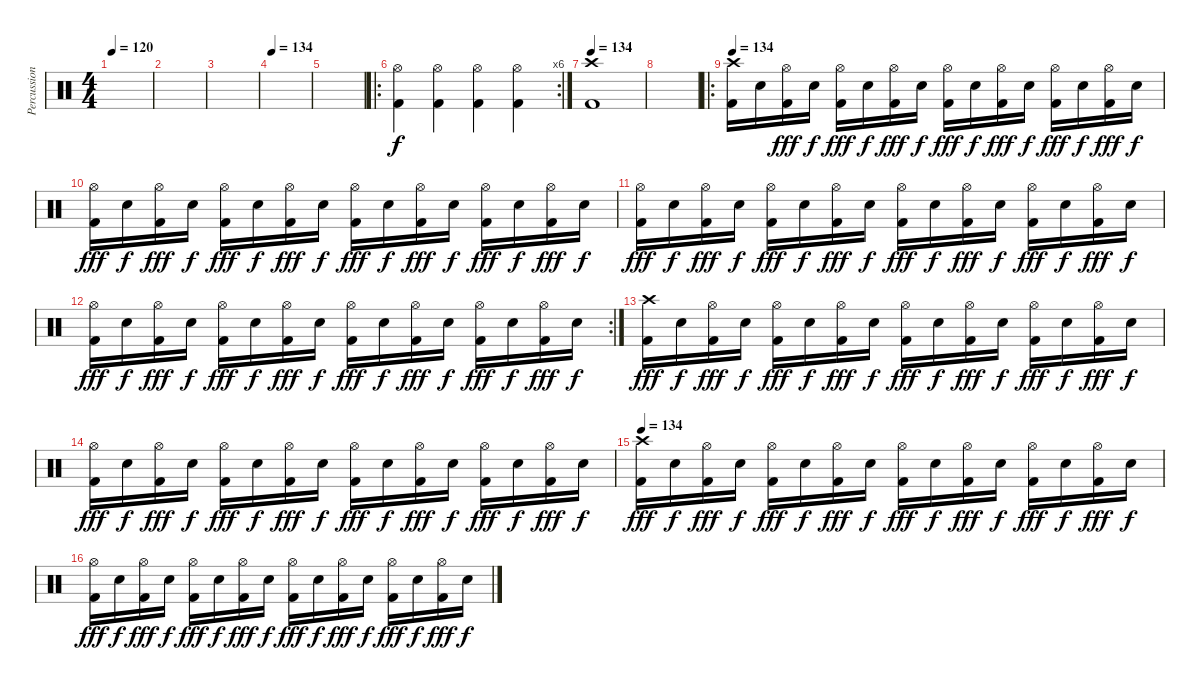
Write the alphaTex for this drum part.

\track ("Percussion" "Percussion") {instrument percussion}
\staff {score}
\articulation defaults
\ts (4 4)
\tempo 120
\tempo 115
\tempo 120
\clef neutral
\ks c
|
|
|
\tempo 134
|
|
\ro
\rc 6
("Hi-Hat (open)" "Kick (hit) 2").4 ("Hi-Hat (open)" "Kick (hit) 2").4 ("Hi-Hat (open)" "Kick (hit) 2").4 ("Hi-Hat (open)" "Kick (hit) 2").4 |
\tempo 134
("Crash high (hit)" "Kick (hit) 2").1 |
|
\ro
\tempo 134
("Crash high (hit)" "Kick (hit) 2").16 "Electric Snare (hit)".16{dy f} ("Hi-Hat (open)" "Kick (hit) 2").16{dy fff} "Electric Snare (hit)".16{dy f} ("Hi-Hat (open)" "Kick (hit) 2").16{dy fff} "Electric Snare (hit)".16{dy f} ("Hi-Hat (open)" "Kick (hit) 2").16{dy fff} "Electric Snare (hit)".16{dy f} ("Hi-Hat (open)" "Kick (hit) 2").16{dy fff} "Electric Snare (hit)".16{dy f} ("Hi-Hat (open)" "Kick (hit) 2").16{dy fff} "Electric Snare (hit)".16{dy f} ("Hi-Hat (open)" "Kick (hit) 2").16{dy fff} "Electric Snare (hit)".16{dy f} ("Hi-Hat (open)" "Kick (hit) 2").16{dy fff} "Electric Snare (hit)".16{dy f} |
("Hi-Hat (open)" "Kick (hit) 2").16{dy fff} "Electric Snare (hit)".16{dy f} ("Hi-Hat (open)" "Kick (hit) 2").16{dy fff} "Electric Snare (hit)".16{dy f} ("Hi-Hat (open)" "Kick (hit) 2").16{dy fff} "Electric Snare (hit)".16{dy f} ("Hi-Hat (open)" "Kick (hit) 2").16{dy fff} "Electric Snare (hit)".16{dy f} ("Hi-Hat (open)" "Kick (hit) 2").16{dy fff} "Electric Snare (hit)".16{dy f} ("Hi-Hat (open)" "Kick (hit) 2").16{dy fff} "Electric Snare (hit)".16{dy f} ("Hi-Hat (open)" "Kick (hit) 2").16{dy fff} "Electric Snare (hit)".16{dy f} ("Hi-Hat (open)" "Kick (hit) 2").16{dy fff} "Electric Snare (hit)".16{dy f} |
("Hi-Hat (open)" "Kick (hit) 2").16{dy fff} "Electric Snare (hit)".16{dy f} ("Hi-Hat (open)" "Kick (hit) 2").16{dy fff} "Electric Snare (hit)".16{dy f} ("Hi-Hat (open)" "Kick (hit) 2").16{dy fff} "Electric Snare (hit)".16{dy f} ("Hi-Hat (open)" "Kick (hit) 2").16{dy fff} "Electric Snare (hit)".16{dy f} ("Hi-Hat (open)" "Kick (hit) 2").16{dy fff} "Electric Snare (hit)".16{dy f} ("Hi-Hat (open)" "Kick (hit) 2").16{dy fff} "Electric Snare (hit)".16{dy f} ("Hi-Hat (open)" "Kick (hit) 2").16{dy fff} "Electric Snare (hit)".16{dy f} ("Hi-Hat (open)" "Kick (hit) 2").16{dy fff} "Electric Snare (hit)".16{dy f} |
\rc 2
("Hi-Hat (open)" "Kick (hit) 2").16{dy fff} "Electric Snare (hit)".16{dy f} ("Hi-Hat (open)" "Kick (hit) 2").16{dy fff} "Electric Snare (hit)".16{dy f} ("Hi-Hat (open)" "Kick (hit) 2").16{dy fff} "Electric Snare (hit)".16{dy f} ("Hi-Hat (open)" "Kick (hit) 2").16{dy fff} "Electric Snare (hit)".16{dy f} ("Hi-Hat (open)" "Kick (hit) 2").16{dy fff} "Electric Snare (hit)".16{dy f} ("Hi-Hat (open)" "Kick (hit) 2").16{dy fff} "Electric Snare (hit)".16{dy f} ("Hi-Hat (open)" "Kick (hit) 2").16{dy fff} "Electric Snare (hit)".16{dy f} ("Hi-Hat (open)" "Kick (hit) 2").16{dy fff} "Electric Snare (hit)".16{dy f} |
("Crash high (hit)" "Kick (hit) 2").16{dy fff} "Electric Snare (hit)".16{dy f} ("Hi-Hat (open)" "Kick (hit) 2").16{dy fff} "Electric Snare (hit)".16{dy f} ("Hi-Hat (open)" "Kick (hit) 2").16{dy fff} "Electric Snare (hit)".16{dy f} ("Hi-Hat (open)" "Kick (hit) 2").16{dy fff} "Electric Snare (hit)".16{dy f} ("Hi-Hat (open)" "Kick (hit) 2").16{dy fff} "Electric Snare (hit)".16{dy f} ("Hi-Hat (open)" "Kick (hit) 2").16{dy fff} "Electric Snare (hit)".16{dy f} ("Hi-Hat (open)" "Kick (hit) 2").16{dy fff} "Electric Snare (hit)".16{dy f} ("Hi-Hat (open)" "Kick (hit) 2").16{dy fff} "Electric Snare (hit)".16{dy f} |
("Hi-Hat (open)" "Kick (hit) 2").16{dy fff} "Electric Snare (hit)".16{dy f} ("Hi-Hat (open)" "Kick (hit) 2").16{dy fff} "Electric Snare (hit)".16{dy f} ("Hi-Hat (open)" "Kick (hit) 2").16{dy fff} "Electric Snare (hit)".16{dy f} ("Hi-Hat (open)" "Kick (hit) 2").16{dy fff} "Electric Snare (hit)".16{dy f} ("Hi-Hat (open)" "Kick (hit) 2").16{dy fff} "Electric Snare (hit)".16{dy f} ("Hi-Hat (open)" "Kick (hit) 2").16{dy fff} "Electric Snare (hit)".16{dy f} ("Hi-Hat (open)" "Kick (hit) 2").16{dy fff} "Electric Snare (hit)".16{dy f} ("Hi-Hat (open)" "Kick (hit) 2").16{dy fff} "Electric Snare (hit)".16{dy f} |
\tempo 134
("Crash high (hit)" "Kick (hit) 2").16{dy fff} "Electric Snare (hit)".16{dy f} ("Hi-Hat (open)" "Kick (hit) 2").16{dy fff} "Electric Snare (hit)".16{dy f} ("Hi-Hat (open)" "Kick (hit) 2").16{dy fff} "Electric Snare (hit)".16{dy f} ("Hi-Hat (open)" "Kick (hit) 2").16{dy fff} "Electric Snare (hit)".16{dy f} ("Hi-Hat (open)" "Kick (hit) 2").16{dy fff} "Electric Snare (hit)".16{dy f} ("Hi-Hat (open)" "Kick (hit) 2").16{dy fff} "Electric Snare (hit)".16{dy f} ("Hi-Hat (open)" "Kick (hit) 2").16{dy fff} "Electric Snare (hit)".16{dy f} ("Hi-Hat (open)" "Kick (hit) 2").16{dy fff} "Electric Snare (hit)".16{dy f} |
("Hi-Hat (open)" "Kick (hit) 2").16{dy fff} "Electric Snare (hit)".16{dy f} ("Hi-Hat (open)" "Kick (hit) 2").16{dy fff} "Electric Snare (hit)".16{dy f} ("Hi-Hat (open)" "Kick (hit) 2").16{dy fff} "Electric Snare (hit)".16{dy f} ("Hi-Hat (open)" "Kick (hit) 2").16{dy fff} "Electric Snare (hit)".16{dy f} ("Hi-Hat (open)" "Kick (hit) 2").16{dy fff} "Electric Snare (hit)".16{dy f} ("Hi-Hat (open)" "Kick (hit) 2").16{dy fff} "Electric Snare (hit)".16{dy f} ("Hi-Hat (open)" "Kick (hit) 2").16{dy fff} "Electric Snare (hit)".16{dy f} ("Hi-Hat (open)" "Kick (hit) 2").16{dy fff} "Electric Snare (hit)".16{dy f}
